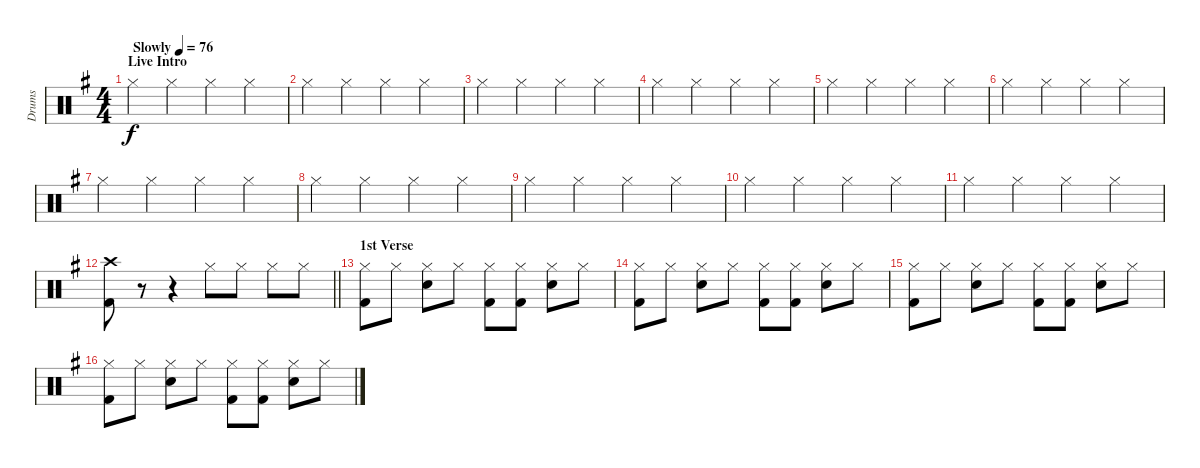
\track ("Drums" "Drums") {instrument percussion}
\staff {score}
\articulation defaults
\ts (4 4)
\section ("" "Live Intro")
\tempo (76 "Slowly")
\clef neutral
\ks eminor "Hi-Hat (closed)".4{dy f} "Hi-Hat (closed)".4 "Hi-Hat (closed)".4 "Hi-Hat (closed)".4
|
"Hi-Hat (closed)".4 "Hi-Hat (closed)".4 "Hi-Hat (closed)".4 "Hi-Hat (closed)".4 |
"Hi-Hat (closed)".4 "Hi-Hat (closed)".4 "Hi-Hat (closed)".4 "Hi-Hat (closed)".4 |
"Hi-Hat (closed)".4 "Hi-Hat (closed)".4 "Hi-Hat (closed)".4 "Hi-Hat (closed)".4 |
"Hi-Hat (closed)".4 "Hi-Hat (closed)".4 "Hi-Hat (closed)".4 "Hi-Hat (closed)".4 |
"Hi-Hat (closed)".4 "Hi-Hat (closed)".4 "Hi-Hat (closed)".4 "Hi-Hat (closed)".4 |
"Hi-Hat (closed)".4 "Hi-Hat (closed)".4 "Hi-Hat (closed)".4 "Hi-Hat (closed)".4 |
"Hi-Hat (closed)".4 "Hi-Hat (closed)".4 "Hi-Hat (closed)".4 "Hi-Hat (closed)".4 |
"Hi-Hat (closed)".4 "Hi-Hat (closed)".4 "Hi-Hat (closed)".4 "Hi-Hat (closed)".4 |
"Hi-Hat (closed)".4 "Hi-Hat (closed)".4 "Hi-Hat (closed)".4 "Hi-Hat (closed)".4 |
"Hi-Hat (closed)".4 "Hi-Hat (closed)".4 "Hi-Hat (closed)".4 "Hi-Hat (closed)".4 |
\barLineRight lightlight
("Crash high (hit)" "Kick (hit) 2").8 r.8 r.4 "Hi-Hat (closed)".8 "Hi-Hat (closed)".8 "Hi-Hat (closed)".8 "Hi-Hat (closed)".8 |
\section ("" "1st Verse")
("Hi-Hat (closed)" "Kick (hit) 2").8 "Hi-Hat (closed)".8 ("Hi-Hat (closed)" "Snare (hit) 2").8 "Hi-Hat (closed)".8 ("Hi-Hat (closed)" "Kick (hit) 2").8 ("Hi-Hat (closed)" "Kick (hit) 2").8 ("Hi-Hat (closed)" "Snare (hit) 2").8 "Hi-Hat (closed)".8 |
("Hi-Hat (closed)" "Kick (hit) 2").8 "Hi-Hat (closed)".8 ("Hi-Hat (closed)" "Snare (hit) 2").8 "Hi-Hat (closed)".8 ("Hi-Hat (closed)" "Kick (hit) 2").8 ("Hi-Hat (closed)" "Kick (hit) 2").8 ("Hi-Hat (closed)" "Snare (hit) 2").8 "Hi-Hat (closed)".8 |
("Hi-Hat (closed)" "Kick (hit) 2").8 "Hi-Hat (closed)".8 ("Hi-Hat (closed)" "Snare (hit) 2").8 "Hi-Hat (closed)".8 ("Hi-Hat (closed)" "Kick (hit) 2").8 ("Hi-Hat (closed)" "Kick (hit) 2").8 ("Hi-Hat (closed)" "Snare (hit) 2").8 "Hi-Hat (closed)".8 |
("Hi-Hat (closed)" "Kick (hit) 2").8 "Hi-Hat (closed)".8 ("Hi-Hat (closed)" "Snare (hit) 2").8 "Hi-Hat (closed)".8 ("Hi-Hat (closed)" "Kick (hit) 2").8 ("Hi-Hat (closed)" "Kick (hit) 2").8 ("Hi-Hat (closed)" "Snare (hit) 2").8 "Hi-Hat (closed)".8
